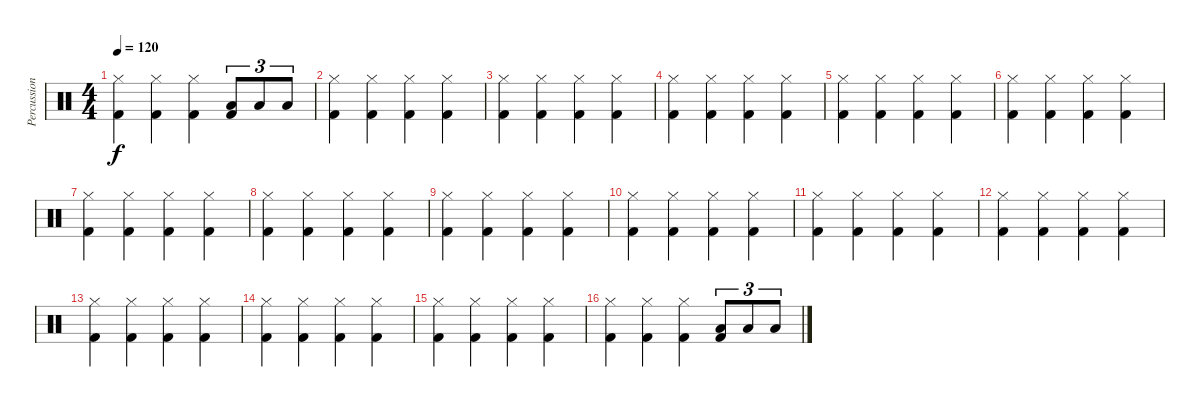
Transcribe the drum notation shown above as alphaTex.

\track ("Percussions" "Percussion") {instrument percussion}
\staff {score}
\articulation defaults
\ts (4 4)
\tempo 120
\clef neutral
\ks c
("Hi-Hat (closed)" "Kick (hit) 2").4{dy f} ("Hi-Hat (closed)" "Kick (hit) 2").4 ("Hi-Hat (closed)" "Kick (hit) 2").4 ("Low Tom (hit)" "Kick (hit) 2").8{tu (3 2)} "Low Tom (hit)".8{tu (3 2)} "Low Tom (hit)".8{tu (3 2)} |
("Hi-Hat (closed)" "Kick (hit) 2").4 ("Hi-Hat (closed)" "Kick (hit) 2").4 ("Hi-Hat (closed)" "Kick (hit) 2").4 ("Hi-Hat (closed)" "Kick (hit) 2").4 |
("Hi-Hat (closed)" "Kick (hit) 2").4 ("Hi-Hat (closed)" "Kick (hit) 2").4 ("Hi-Hat (closed)" "Kick (hit) 2").4 ("Hi-Hat (closed)" "Kick (hit) 2").4 |
("Hi-Hat (closed)" "Kick (hit) 2").4 ("Hi-Hat (closed)" "Kick (hit) 2").4 ("Hi-Hat (closed)" "Kick (hit) 2").4 ("Hi-Hat (closed)" "Kick (hit) 2").4 |
("Hi-Hat (closed)" "Kick (hit) 2").4 ("Hi-Hat (closed)" "Kick (hit) 2").4 ("Hi-Hat (closed)" "Kick (hit) 2").4 ("Hi-Hat (closed)" "Kick (hit) 2").4 |
("Hi-Hat (closed)" "Kick (hit) 2").4 ("Hi-Hat (closed)" "Kick (hit) 2").4 ("Hi-Hat (closed)" "Kick (hit) 2").4 ("Hi-Hat (closed)" "Kick (hit) 2").4 |
("Hi-Hat (closed)" "Kick (hit) 2").4 ("Hi-Hat (closed)" "Kick (hit) 2").4 ("Hi-Hat (closed)" "Kick (hit) 2").4 ("Hi-Hat (closed)" "Kick (hit) 2").4 |
("Hi-Hat (closed)" "Kick (hit) 2").4 ("Hi-Hat (closed)" "Kick (hit) 2").4 ("Hi-Hat (closed)" "Kick (hit) 2").4 ("Hi-Hat (closed)" "Kick (hit) 2").4 |
("Hi-Hat (closed)" "Kick (hit) 2").4 ("Hi-Hat (closed)" "Kick (hit) 2").4 ("Hi-Hat (closed)" "Kick (hit) 2").4 ("Hi-Hat (closed)" "Kick (hit) 2").4 |
("Hi-Hat (closed)" "Kick (hit) 2").4 ("Hi-Hat (closed)" "Kick (hit) 2").4 ("Hi-Hat (closed)" "Kick (hit) 2").4 ("Hi-Hat (closed)" "Kick (hit) 2").4 |
("Hi-Hat (closed)" "Kick (hit) 2").4 ("Hi-Hat (closed)" "Kick (hit) 2").4 ("Hi-Hat (closed)" "Kick (hit) 2").4 ("Hi-Hat (closed)" "Kick (hit) 2").4 |
("Hi-Hat (closed)" "Kick (hit) 2").4 ("Hi-Hat (closed)" "Kick (hit) 2").4 ("Hi-Hat (closed)" "Kick (hit) 2").4 ("Hi-Hat (closed)" "Kick (hit) 2").4 |
("Hi-Hat (closed)" "Kick (hit) 2").4 ("Hi-Hat (closed)" "Kick (hit) 2").4 ("Hi-Hat (closed)" "Kick (hit) 2").4 ("Hi-Hat (closed)" "Kick (hit) 2").4 |
("Hi-Hat (closed)" "Kick (hit) 2").4 ("Hi-Hat (closed)" "Kick (hit) 2").4 ("Hi-Hat (closed)" "Kick (hit) 2").4 ("Hi-Hat (closed)" "Kick (hit) 2").4 |
("Hi-Hat (closed)" "Kick (hit) 2").4 ("Hi-Hat (closed)" "Kick (hit) 2").4 ("Hi-Hat (closed)" "Kick (hit) 2").4 ("Hi-Hat (closed)" "Kick (hit) 2").4 |
("Hi-Hat (closed)" "Kick (hit) 2").4 ("Hi-Hat (closed)" "Kick (hit) 2").4 ("Hi-Hat (closed)" "Kick (hit) 2").4 ("Low Tom (hit)" "Kick (hit) 2").8{tu (3 2)} "Low Tom (hit)".8{tu (3 2)} "Low Tom (hit)".8{tu (3 2)}
